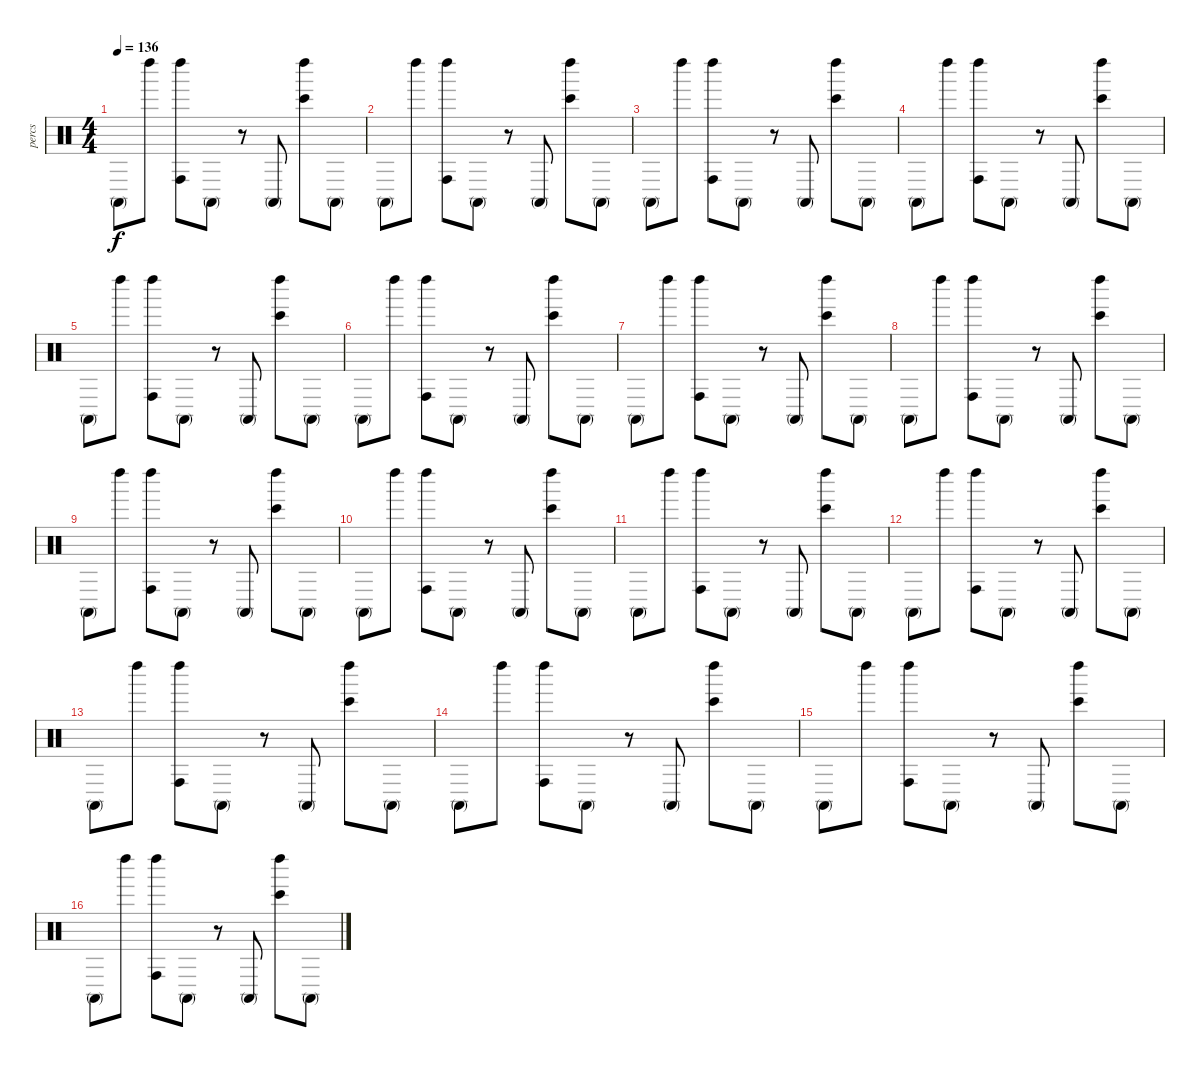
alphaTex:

\track ("percs" "percs") {instrument percussion}
\staff {score}
\articulation defaults
\ts (4 4)
\tempo 136
\clef neutral
\ks c "Conga high (mute)".8{dy f} "Left Maraca (hit)".8
("Left Maraca (hit)" "Conga high (hit)").8 "Conga high (mute)".8 r.8 "Conga high (mute)".8 ("Left Maraca (hit)" "Bongo High (hit)").8 "Conga high (mute)".8 |
"Conga high (mute)".8 "Left Maraca (hit)".8 ("Left Maraca (hit)" "Conga high (hit)").8 "Conga high (mute)".8 r.8 "Conga high (mute)".8 ("Left Maraca (hit)" "Bongo High (hit)").8 "Conga high (mute)".8 |
"Conga high (mute)".8 "Left Maraca (hit)".8 ("Left Maraca (hit)" "Conga high (hit)").8 "Conga high (mute)".8 r.8 "Conga high (mute)".8 ("Left Maraca (hit)" "Bongo High (hit)").8 "Conga high (mute)".8 |
"Conga high (mute)".8 "Left Maraca (hit)".8 ("Left Maraca (hit)" "Conga high (hit)").8 "Conga high (mute)".8 r.8 "Conga high (mute)".8 ("Left Maraca (hit)" "Bongo High (hit)").8 "Conga high (mute)".8 |
"Conga high (mute)".8 "Left Maraca (hit)".8 ("Left Maraca (hit)" "Conga high (hit)").8 "Conga high (mute)".8 r.8 "Conga high (mute)".8 ("Left Maraca (hit)" "Bongo High (hit)").8 "Conga high (mute)".8 |
"Conga high (mute)".8 "Left Maraca (hit)".8 ("Left Maraca (hit)" "Conga high (hit)").8 "Conga high (mute)".8 r.8 "Conga high (mute)".8 ("Left Maraca (hit)" "Bongo High (hit)").8 "Conga high (mute)".8 |
"Conga high (mute)".8 "Left Maraca (hit)".8 ("Left Maraca (hit)" "Conga high (hit)").8 "Conga high (mute)".8 r.8 "Conga high (mute)".8 ("Left Maraca (hit)" "Bongo High (hit)").8 "Conga high (mute)".8 |
"Conga high (mute)".8 "Left Maraca (hit)".8 ("Left Maraca (hit)" "Conga high (hit)").8 "Conga high (mute)".8 r.8 "Conga high (mute)".8 ("Left Maraca (hit)" "Bongo High (hit)").8 "Conga high (mute)".8 |
"Conga high (mute)".8 "Left Maraca (hit)".8 ("Left Maraca (hit)" "Conga high (hit)").8 "Conga high (mute)".8 r.8 "Conga high (mute)".8 ("Left Maraca (hit)" "Bongo High (hit)").8 "Conga high (mute)".8 |
"Conga high (mute)".8 "Left Maraca (hit)".8 ("Left Maraca (hit)" "Conga high (hit)").8 "Conga high (mute)".8 r.8 "Conga high (mute)".8 ("Left Maraca (hit)" "Bongo High (hit)").8 "Conga high (mute)".8 |
"Conga high (mute)".8 "Left Maraca (hit)".8 ("Left Maraca (hit)" "Conga high (hit)").8 "Conga high (mute)".8 r.8 "Conga high (mute)".8 ("Left Maraca (hit)" "Bongo High (hit)").8 "Conga high (mute)".8 |
"Conga high (mute)".8 "Left Maraca (hit)".8 ("Left Maraca (hit)" "Conga high (hit)").8 "Conga high (mute)".8 r.8 "Conga high (mute)".8 ("Left Maraca (hit)" "Bongo High (hit)").8 "Conga high (mute)".8 |
"Conga high (mute)".8 "Left Maraca (hit)".8 ("Left Maraca (hit)" "Conga high (hit)").8 "Conga high (mute)".8 r.8 "Conga high (mute)".8 ("Left Maraca (hit)" "Bongo High (hit)").8 "Conga high (mute)".8 |
"Conga high (mute)".8 "Left Maraca (hit)".8 ("Left Maraca (hit)" "Conga high (hit)").8 "Conga high (mute)".8 r.8 "Conga high (mute)".8 ("Left Maraca (hit)" "Bongo High (hit)").8 "Conga high (mute)".8 |
"Conga high (mute)".8 "Left Maraca (hit)".8 ("Left Maraca (hit)" "Conga high (hit)").8 "Conga high (mute)".8 r.8 "Conga high (mute)".8 ("Left Maraca (hit)" "Bongo High (hit)").8 "Conga high (mute)".8 |
"Conga high (mute)".8 "Left Maraca (hit)".8 ("Left Maraca (hit)" "Conga high (hit)").8 "Conga high (mute)".8 r.8 "Conga high (mute)".8 ("Left Maraca (hit)" "Bongo High (hit)").8 "Conga high (mute)".8
